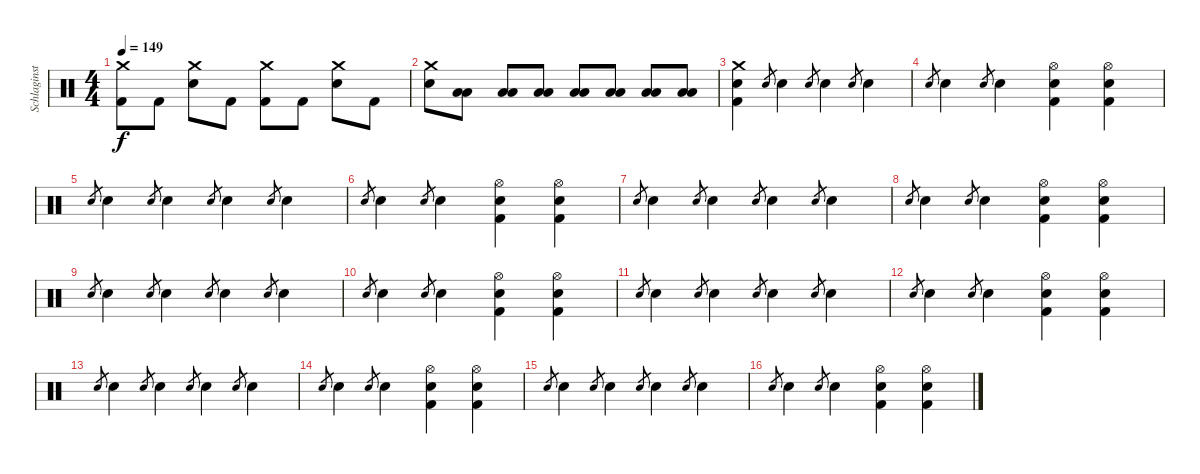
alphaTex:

\track ("Schlaginstrumente - Auswahl" "Schlaginst") {instrument percussion}
\staff {score}
\articulation defaults
\ts (4 4)
\tempo 149
\clef neutral
\ks c
("Crash medium (hit)" "Kick (hit) 2").8{dy f} "Kick (hit) 2".8 ("Crash medium (hit)" "Electric Snare (hit)").8 "Kick (hit) 2".8 ("Crash medium (hit)" "Kick (hit) 2").8 "Kick (hit) 2".8 ("Crash medium (hit)" "Electric Snare (hit)").8 "Kick (hit) 2".8 |
("Crash medium (hit)" "Electric Snare (hit)").8 ("Low Floor Tom (hit)" "Low Tom (hit)").8 ("Low Floor Tom (hit)" "Low Tom (hit)").8 ("Low Floor Tom (hit)" "Low Tom (hit)").8 ("Low Floor Tom (hit)" "Low Tom (hit)").8 ("Low Floor Tom (hit)" "Low Tom (hit)").8 ("Low Floor Tom (hit)" "Low Tom (hit)").8 ("Low Floor Tom (hit)" "Low Tom (hit)").8 |
("Crash medium (hit)" "Electric Snare (hit)" "Kick (hit) 2").4 "Electric Snare (hit)".8{gr} "Electric Snare (hit)".4 "Electric Snare (hit)".8{gr} "Electric Snare (hit)".4 "Electric Snare (hit)".8{gr} "Electric Snare (hit)".4 |
"Electric Snare (hit)".8{gr} "Electric Snare (hit)".4 "Electric Snare (hit)".8{gr} "Electric Snare (hit)".4 ("Hi-Hat (open)" "Electric Snare (hit)" "Kick (hit) 2").4 ("Hi-Hat (open)" "Electric Snare (hit)" "Kick (hit) 2").4 |
"Electric Snare (hit)".8{gr} "Electric Snare (hit)".4 "Electric Snare (hit)".8{gr} "Electric Snare (hit)".4 "Electric Snare (hit)".8{gr} "Electric Snare (hit)".4 "Electric Snare (hit)".8{gr} "Electric Snare (hit)".4 |
"Electric Snare (hit)".8{gr} "Electric Snare (hit)".4 "Electric Snare (hit)".8{gr} "Electric Snare (hit)".4 ("Hi-Hat (open)" "Electric Snare (hit)" "Kick (hit) 2").4 ("Hi-Hat (open)" "Electric Snare (hit)" "Kick (hit) 2").4 |
"Electric Snare (hit)".8{gr} "Electric Snare (hit)".4 "Electric Snare (hit)".8{gr} "Electric Snare (hit)".4 "Electric Snare (hit)".8{gr} "Electric Snare (hit)".4 "Electric Snare (hit)".8{gr} "Electric Snare (hit)".4 |
"Electric Snare (hit)".8{gr} "Electric Snare (hit)".4 "Electric Snare (hit)".8{gr} "Electric Snare (hit)".4 ("Hi-Hat (open)" "Electric Snare (hit)" "Kick (hit) 2").4 ("Hi-Hat (open)" "Electric Snare (hit)" "Kick (hit) 2").4 |
"Electric Snare (hit)".8{gr} "Electric Snare (hit)".4 "Electric Snare (hit)".8{gr} "Electric Snare (hit)".4 "Electric Snare (hit)".8{gr} "Electric Snare (hit)".4 "Electric Snare (hit)".8{gr} "Electric Snare (hit)".4 |
"Electric Snare (hit)".8{gr} "Electric Snare (hit)".4 "Electric Snare (hit)".8{gr} "Electric Snare (hit)".4 ("Hi-Hat (open)" "Electric Snare (hit)" "Kick (hit) 2").4 ("Hi-Hat (open)" "Electric Snare (hit)" "Kick (hit) 2").4 |
"Electric Snare (hit)".8{gr} "Electric Snare (hit)".4 "Electric Snare (hit)".8{gr} "Electric Snare (hit)".4 "Electric Snare (hit)".8{gr} "Electric Snare (hit)".4 "Electric Snare (hit)".8{gr} "Electric Snare (hit)".4 |
"Electric Snare (hit)".8{gr} "Electric Snare (hit)".4 "Electric Snare (hit)".8{gr} "Electric Snare (hit)".4 ("Hi-Hat (open)" "Electric Snare (hit)" "Kick (hit) 2").4 ("Hi-Hat (open)" "Electric Snare (hit)" "Kick (hit) 2").4 |
"Electric Snare (hit)".8{gr} "Electric Snare (hit)".4 "Electric Snare (hit)".8{gr} "Electric Snare (hit)".4 "Electric Snare (hit)".8{gr} "Electric Snare (hit)".4 "Electric Snare (hit)".8{gr} "Electric Snare (hit)".4 |
"Electric Snare (hit)".8{gr} "Electric Snare (hit)".4 "Electric Snare (hit)".8{gr} "Electric Snare (hit)".4 ("Hi-Hat (open)" "Electric Snare (hit)" "Kick (hit) 2").4 ("Hi-Hat (open)" "Electric Snare (hit)" "Kick (hit) 2").4 |
"Electric Snare (hit)".8{gr} "Electric Snare (hit)".4 "Electric Snare (hit)".8{gr} "Electric Snare (hit)".4 "Electric Snare (hit)".8{gr} "Electric Snare (hit)".4 "Electric Snare (hit)".8{gr} "Electric Snare (hit)".4 |
"Electric Snare (hit)".8{gr} "Electric Snare (hit)".4 "Electric Snare (hit)".8{gr} "Electric Snare (hit)".4 ("Hi-Hat (open)" "Electric Snare (hit)" "Kick (hit) 2").4 ("Hi-Hat (open)" "Electric Snare (hit)" "Kick (hit) 2").4
